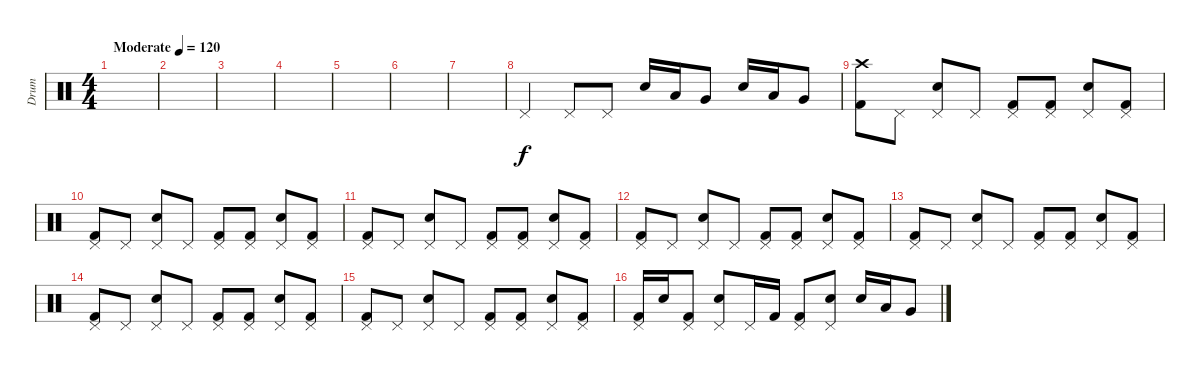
\track ("Drum" "Drum") {instrument percussion}
\staff {score}
\articulation defaults
\ts (4 4)
\tempo (120 "Moderate")
\clef neutral
\ks c
|
|
|
|
|
|
|
"Pedal Hi-Hat (hit)".4 "Pedal Hi-Hat (hit)".8 "Pedal Hi-Hat (hit)".8 "Electric Snare (hit)".16 "Low Tom (hit)".16 "Very Low Tom (hit)".8 "Electric Snare (hit)".16 "Low Tom (hit)".16 "Very Low Tom (hit)".8 |
("Crash high (hit)" "Kick (hit) 2").8 "Pedal Hi-Hat (hit)".8 ("Pedal Hi-Hat (hit)" "Electric Snare (hit)").8 "Pedal Hi-Hat (hit)".8 ("Pedal Hi-Hat (hit)" "Kick (hit) 2").8 ("Pedal Hi-Hat (hit)" "Kick (hit) 2").8 ("Pedal Hi-Hat (hit)" "Electric Snare (hit)").8 ("Pedal Hi-Hat (hit)" "Kick (hit) 2").8 |
("Pedal Hi-Hat (hit)" "Kick (hit) 2").8 "Pedal Hi-Hat (hit)".8 ("Pedal Hi-Hat (hit)" "Electric Snare (hit)").8 "Pedal Hi-Hat (hit)".8 ("Pedal Hi-Hat (hit)" "Kick (hit) 2").8 ("Pedal Hi-Hat (hit)" "Kick (hit) 2").8 ("Pedal Hi-Hat (hit)" "Electric Snare (hit)").8 ("Pedal Hi-Hat (hit)" "Kick (hit) 2").8 |
("Pedal Hi-Hat (hit)" "Kick (hit) 2").8 "Pedal Hi-Hat (hit)".8 ("Pedal Hi-Hat (hit)" "Electric Snare (hit)").8 "Pedal Hi-Hat (hit)".8 ("Pedal Hi-Hat (hit)" "Kick (hit) 2").8 ("Pedal Hi-Hat (hit)" "Kick (hit) 2").8 ("Pedal Hi-Hat (hit)" "Electric Snare (hit)").8 ("Pedal Hi-Hat (hit)" "Kick (hit) 2").8 |
("Pedal Hi-Hat (hit)" "Kick (hit) 2").8 "Pedal Hi-Hat (hit)".8 ("Pedal Hi-Hat (hit)" "Electric Snare (hit)").8 "Pedal Hi-Hat (hit)".8 ("Pedal Hi-Hat (hit)" "Kick (hit) 2").8 ("Pedal Hi-Hat (hit)" "Kick (hit) 2").8 ("Pedal Hi-Hat (hit)" "Electric Snare (hit)").8 ("Pedal Hi-Hat (hit)" "Kick (hit) 2").8 |
("Pedal Hi-Hat (hit)" "Kick (hit) 2").8 "Pedal Hi-Hat (hit)".8 ("Pedal Hi-Hat (hit)" "Electric Snare (hit)").8 "Pedal Hi-Hat (hit)".8 ("Pedal Hi-Hat (hit)" "Kick (hit) 2").8 ("Pedal Hi-Hat (hit)" "Kick (hit) 2").8 ("Pedal Hi-Hat (hit)" "Electric Snare (hit)").8 ("Pedal Hi-Hat (hit)" "Kick (hit) 2").8 |
("Pedal Hi-Hat (hit)" "Kick (hit) 2").8 "Pedal Hi-Hat (hit)".8 ("Pedal Hi-Hat (hit)" "Electric Snare (hit)").8 "Pedal Hi-Hat (hit)".8 ("Pedal Hi-Hat (hit)" "Kick (hit) 2").8 ("Pedal Hi-Hat (hit)" "Kick (hit) 2").8 ("Pedal Hi-Hat (hit)" "Electric Snare (hit)").8 ("Pedal Hi-Hat (hit)" "Kick (hit) 2").8 |
("Pedal Hi-Hat (hit)" "Kick (hit) 2").8 "Pedal Hi-Hat (hit)".8 ("Pedal Hi-Hat (hit)" "Electric Snare (hit)").8 "Pedal Hi-Hat (hit)".8 ("Pedal Hi-Hat (hit)" "Kick (hit) 2").8 ("Pedal Hi-Hat (hit)" "Kick (hit) 2").8 ("Pedal Hi-Hat (hit)" "Electric Snare (hit)").8 ("Pedal Hi-Hat (hit)" "Kick (hit) 2").8 |
("Pedal Hi-Hat (hit)" "Kick (hit) 2").16 "Electric Snare (hit)".16 ("Pedal Hi-Hat (hit)" "Kick (hit) 2").8 ("Pedal Hi-Hat (hit)" "Electric Snare (hit)").8 "Pedal Hi-Hat (hit)".16 "Kick (hit) 2".16 ("Pedal Hi-Hat (hit)" "Kick (hit) 2").8 ("Pedal Hi-Hat (hit)" "Electric Snare (hit)").8 "Electric Snare (hit)".16 "Low Tom (hit)".16 "Very Low Tom (hit)".8
